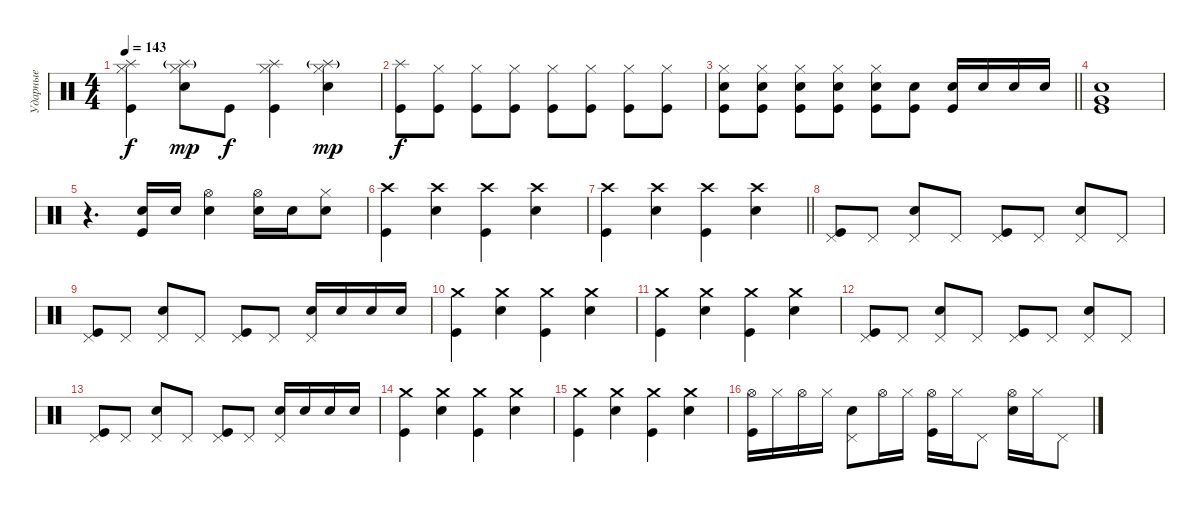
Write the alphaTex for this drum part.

\track ("Ударные" "Ударные") {instrument percussion}
\staff {score}
\articulation defaults
\ts (4 4)
\tempo 143
\clef neutral
\ks c
("Splash (hit)" "Hi-Hat (closed)" "Kick (hit)").4{dy f} ("Splash (hit)"{g} "Hi-Hat (closed)" "Electric Snare (hit)").8{dy mp} "Kick (hit)".8{dy f} ("Splash (hit)" "Hi-Hat (closed)" "Kick (hit)").4 ("Splash (hit)"{g} "Hi-Hat (closed)" "Electric Snare (hit)").4{dy mp} |
("Splash (hit)" "Kick (hit)").8{dy f} ("Hi-Hat (closed)" "Kick (hit)").8 ("Hi-Hat (closed)" "Kick (hit)").8 ("Hi-Hat (closed)" "Kick (hit)").8 ("Hi-Hat (closed)" "Kick (hit)").8 ("Hi-Hat (closed)" "Kick (hit)").8 ("Hi-Hat (closed)" "Kick (hit)").8 ("Hi-Hat (closed)" "Kick (hit)").8 |
\barLineRight lightlight
("Hi-Hat (closed)" "Electric Snare (hit)" "Kick (hit)").8 ("Hi-Hat (closed)" "Electric Snare (hit)" "Kick (hit)").8 ("Hi-Hat (closed)" "Electric Snare (hit)" "Kick (hit)").8 ("Hi-Hat (closed)" "Electric Snare (hit)" "Kick (hit)").8 ("Hi-Hat (closed)" "Snare (hit) 2" "Kick (hit)").8 ("Snare (hit) 2" "Kick (hit)").8 ("Snare (hit) 2" "Kick (hit)").16 "Snare (hit) 2".16 "Snare (hit) 2".16 "Snare (hit) 2".16 |
("Electric Snare (hit)" "Very Low Tom (hit)" "Kick (hit)").1 |
r.4{d} ("Snare (hit) 2" "Kick (hit)").16 "Snare (hit) 2".16 ("Hi-Hat (open)" "Snare (hit) 2").4 ("Hi-Hat (open)" "Snare (hit) 2").16 "Snare (hit) 2".16 ("Hi-Hat (closed)" "Snare (hit) 2").8 |
("Crash high (hit)" "Kick (hit)").4 ("Crash high (hit)" "Snare (hit) 2").4 ("Crash high (hit)" "Kick (hit)").4 ("Crash high (hit)" "Snare (hit) 2").4 |
\barLineRight lightlight
("Crash high (hit)" "Kick (hit)").4 ("Crash high (hit)" "Snare (hit) 2").4 ("Crash high (hit)" "Kick (hit)").4 ("Crash high (hit)" "Snare (hit) 2").4 |
("Pedal Hi-Hat (hit)" "Kick (hit)").8 "Pedal Hi-Hat (hit)".8 ("Pedal Hi-Hat (hit)" "Electric Snare (hit)").8 "Pedal Hi-Hat (hit)".8 ("Pedal Hi-Hat (hit)" "Kick (hit)").8 "Pedal Hi-Hat (hit)".8 ("Pedal Hi-Hat (hit)" "Electric Snare (hit)").8 "Pedal Hi-Hat (hit)".8 |
("Pedal Hi-Hat (hit)" "Kick (hit)").8 "Pedal Hi-Hat (hit)".8 ("Pedal Hi-Hat (hit)" "Electric Snare (hit)").8 "Pedal Hi-Hat (hit)".8 ("Pedal Hi-Hat (hit)" "Kick (hit)").8 "Pedal Hi-Hat (hit)".8 ("Pedal Hi-Hat (hit)" "Snare (hit) 2").16 "Snare (hit) 2".16 "Snare (hit) 2".16 "Snare (hit) 2".16 |
("Crash medium (hit)" "Kick (hit)").4 ("Crash medium (hit)" "Snare (hit) 2").4 ("Crash medium (hit)" "Kick (hit)").4 ("Crash medium (hit)" "Snare (hit) 2").4 |
("Crash medium (hit)" "Kick (hit)").4 ("Crash medium (hit)" "Snare (hit) 2").4 ("Crash medium (hit)" "Kick (hit)").4 ("Crash medium (hit)" "Snare (hit) 2").4 |
("Pedal Hi-Hat (hit)" "Kick (hit)").8 "Pedal Hi-Hat (hit)".8 ("Pedal Hi-Hat (hit)" "Electric Snare (hit)").8 "Pedal Hi-Hat (hit)".8 ("Pedal Hi-Hat (hit)" "Kick (hit)").8 "Pedal Hi-Hat (hit)".8 ("Pedal Hi-Hat (hit)" "Electric Snare (hit)").8 "Pedal Hi-Hat (hit)".8 |
("Pedal Hi-Hat (hit)" "Kick (hit)").8 "Pedal Hi-Hat (hit)".8 ("Pedal Hi-Hat (hit)" "Electric Snare (hit)").8 "Pedal Hi-Hat (hit)".8 ("Pedal Hi-Hat (hit)" "Kick (hit)").8 "Pedal Hi-Hat (hit)".8 ("Pedal Hi-Hat (hit)" "Snare (hit) 2").16 "Snare (hit) 2".16 "Snare (hit) 2".16 "Snare (hit) 2".16 |
("Crash medium (hit)" "Kick (hit)").4 ("Crash medium (hit)" "Snare (hit) 2").4 ("Crash medium (hit)" "Kick (hit)").4 ("Crash medium (hit)" "Snare (hit) 2").4 |
("Crash medium (hit)" "Kick (hit)").4 ("Crash medium (hit)" "Snare (hit) 2").4 ("Crash medium (hit)" "Kick (hit)").4 ("Crash medium (hit)" "Snare (hit) 2").4 |
("Hi-Hat (open)" "Kick (hit)").16 "Hi-Hat (closed)".16 "Hi-Hat (open)".16 "Hi-Hat (closed)".16 ("Pedal Hi-Hat (hit)" "Electric Snare (hit)").8 "Hi-Hat (open)".16 "Hi-Hat (closed)".16 ("Hi-Hat (open)" "Kick (hit)").16 "Hi-Hat (closed)".16 "Pedal Hi-Hat (hit)".8 ("Hi-Hat (open)" "Electric Snare (hit)").16 "Hi-Hat (closed)".16 "Pedal Hi-Hat (hit)".8
